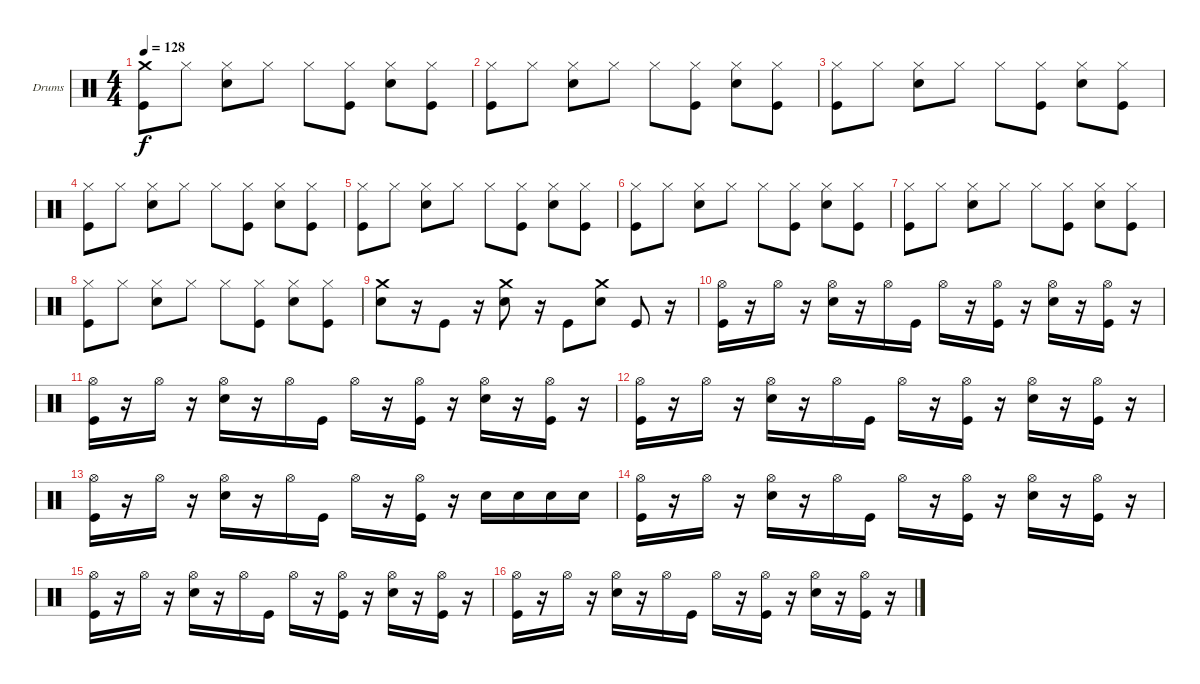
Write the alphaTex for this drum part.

\bracketExtendMode groupsimilarinstruments
\firstSystemTrackNameOrientation horizontal
\otherSystemsTrackNameOrientation horizontal
\track ("Drumkit" "Drums") {instrument percussion}
\staff {score}
\articulation defaults
\ts (4 4)
\tempo 128
\clef neutral
\ks c
("Kick (hit)" "Crash medium (hit)").8{dy f} "Hi-Hat (closed)".8 ("Snare (hit) 2" "Hi-Hat (closed)").8 "Hi-Hat (closed)".8 "Hi-Hat (closed)".8 ("Kick (hit)" "Hi-Hat (closed)").8 ("Snare (hit) 2" "Hi-Hat (closed)").8 ("Kick (hit)" "Hi-Hat (closed)").8 |
("Kick (hit)" "Hi-Hat (closed)").8 "Hi-Hat (closed)".8 ("Snare (hit) 2" "Hi-Hat (closed)").8 "Hi-Hat (closed)".8 "Hi-Hat (closed)".8 ("Kick (hit)" "Hi-Hat (closed)").8 ("Snare (hit) 2" "Hi-Hat (closed)").8 ("Kick (hit)" "Hi-Hat (closed)").8 |
("Kick (hit)" "Hi-Hat (closed)").8 "Hi-Hat (closed)".8 ("Snare (hit) 2" "Hi-Hat (closed)").8 "Hi-Hat (closed)".8 "Hi-Hat (closed)".8 ("Kick (hit)" "Hi-Hat (closed)").8 ("Snare (hit) 2" "Hi-Hat (closed)").8 ("Kick (hit)" "Hi-Hat (closed)").8 |
("Kick (hit)" "Hi-Hat (closed)").8 "Hi-Hat (closed)".8 ("Snare (hit) 2" "Hi-Hat (closed)").8 "Hi-Hat (closed)".8 "Hi-Hat (closed)".8 ("Kick (hit)" "Hi-Hat (closed)").8 ("Snare (hit) 2" "Hi-Hat (closed)").8 ("Kick (hit)" "Hi-Hat (closed)").8 |
("Kick (hit)" "Hi-Hat (closed)").8 "Hi-Hat (closed)".8 ("Snare (hit) 2" "Hi-Hat (closed)").8 "Hi-Hat (closed)".8 "Hi-Hat (closed)".8 ("Kick (hit)" "Hi-Hat (closed)").8 ("Snare (hit) 2" "Hi-Hat (closed)").8 ("Kick (hit)" "Hi-Hat (closed)").8 |
("Kick (hit)" "Hi-Hat (closed)").8 "Hi-Hat (closed)".8 ("Snare (hit) 2" "Hi-Hat (closed)").8 "Hi-Hat (closed)".8 "Hi-Hat (closed)".8 ("Kick (hit)" "Hi-Hat (closed)").8 ("Snare (hit) 2" "Hi-Hat (closed)").8 ("Kick (hit)" "Hi-Hat (closed)").8 |
("Kick (hit)" "Hi-Hat (closed)").8 "Hi-Hat (closed)".8 ("Snare (hit) 2" "Hi-Hat (closed)").8 "Hi-Hat (closed)".8 "Hi-Hat (closed)".8 ("Kick (hit)" "Hi-Hat (closed)").8 ("Snare (hit) 2" "Hi-Hat (closed)").8 ("Kick (hit)" "Hi-Hat (closed)").8 |
("Kick (hit)" "Hi-Hat (closed)").8 "Hi-Hat (closed)".8 ("Snare (hit) 2" "Hi-Hat (closed)").8 "Hi-Hat (closed)".8 "Hi-Hat (closed)".8 ("Kick (hit)" "Hi-Hat (closed)").8 ("Snare (hit) 2" "Hi-Hat (closed)").8 ("Kick (hit)" "Hi-Hat (closed)").8 |
("Snare (hit) 2" "Crash medium (hit)").8 r.16 "Kick (hit)".8 r.16 ("Snare (hit) 2" "Crash medium (hit)").8 r.16 "Kick (hit)".8 ("Snare (hit) 2" "Crash medium (hit)").8 "Kick (hit)".8 r.16 |
("Kick (hit)" "Hi-Hat (open)").16 r.16 "Hi-Hat (open)".16 r.16 ("Snare (hit) 2" "Hi-Hat (open)").16 r.16 "Hi-Hat (open)".16 "Kick (hit)".16 "Hi-Hat (open)".16 r.16 ("Kick (hit)" "Hi-Hat (open)").16 r.16 ("Snare (hit) 2" "Hi-Hat (open)").16 r.16 ("Kick (hit)" "Hi-Hat (open)").16 r.16 |
("Kick (hit)" "Hi-Hat (open)").16 r.16 "Hi-Hat (open)".16 r.16 ("Snare (hit) 2" "Hi-Hat (open)").16 r.16 "Hi-Hat (open)".16 "Kick (hit)".16 "Hi-Hat (open)".16 r.16 ("Kick (hit)" "Hi-Hat (open)").16 r.16 ("Snare (hit) 2" "Hi-Hat (open)").16 r.16 ("Kick (hit)" "Hi-Hat (open)").16 r.16 |
("Kick (hit)" "Hi-Hat (open)").16 r.16 "Hi-Hat (open)".16 r.16 ("Snare (hit) 2" "Hi-Hat (open)").16 r.16 "Hi-Hat (open)".16 "Kick (hit)".16 "Hi-Hat (open)".16 r.16 ("Kick (hit)" "Hi-Hat (open)").16 r.16 ("Snare (hit) 2" "Hi-Hat (open)").16 r.16 ("Kick (hit)" "Hi-Hat (open)").16 r.16 |
("Kick (hit)" "Hi-Hat (open)").16 r.16 "Hi-Hat (open)".16 r.16 ("Snare (hit) 2" "Hi-Hat (open)").16 r.16 "Hi-Hat (open)".16 "Kick (hit)".16 "Hi-Hat (open)".16 r.16 ("Kick (hit)" "Hi-Hat (open)").16 r.16 "Snare (hit) 2".16 "Snare (hit) 2".16 "Snare (hit) 2".16 "Snare (hit) 2".16 |
("Kick (hit)" "Hi-Hat (open)").16 r.16 "Hi-Hat (open)".16 r.16 ("Snare (hit) 2" "Hi-Hat (open)").16 r.16 "Hi-Hat (open)".16 "Kick (hit)".16 "Hi-Hat (open)".16 r.16 ("Kick (hit)" "Hi-Hat (open)").16 r.16 ("Snare (hit) 2" "Hi-Hat (open)").16 r.16 ("Kick (hit)" "Hi-Hat (open)").16 r.16 |
("Kick (hit)" "Hi-Hat (open)").16 r.16 "Hi-Hat (open)".16 r.16 ("Snare (hit) 2" "Hi-Hat (open)").16 r.16 "Hi-Hat (open)".16 "Kick (hit)".16 "Hi-Hat (open)".16 r.16 ("Kick (hit)" "Hi-Hat (open)").16 r.16 ("Snare (hit) 2" "Hi-Hat (open)").16 r.16 ("Kick (hit)" "Hi-Hat (open)").16 r.16 |
("Kick (hit)" "Hi-Hat (open)").16 r.16 "Hi-Hat (open)".16 r.16 ("Snare (hit) 2" "Hi-Hat (open)").16 r.16 "Hi-Hat (open)".16 "Kick (hit)".16 "Hi-Hat (open)".16 r.16 ("Kick (hit)" "Hi-Hat (open)").16 r.16 ("Snare (hit) 2" "Hi-Hat (open)").16 r.16 ("Kick (hit)" "Hi-Hat (open)").16 r.16
